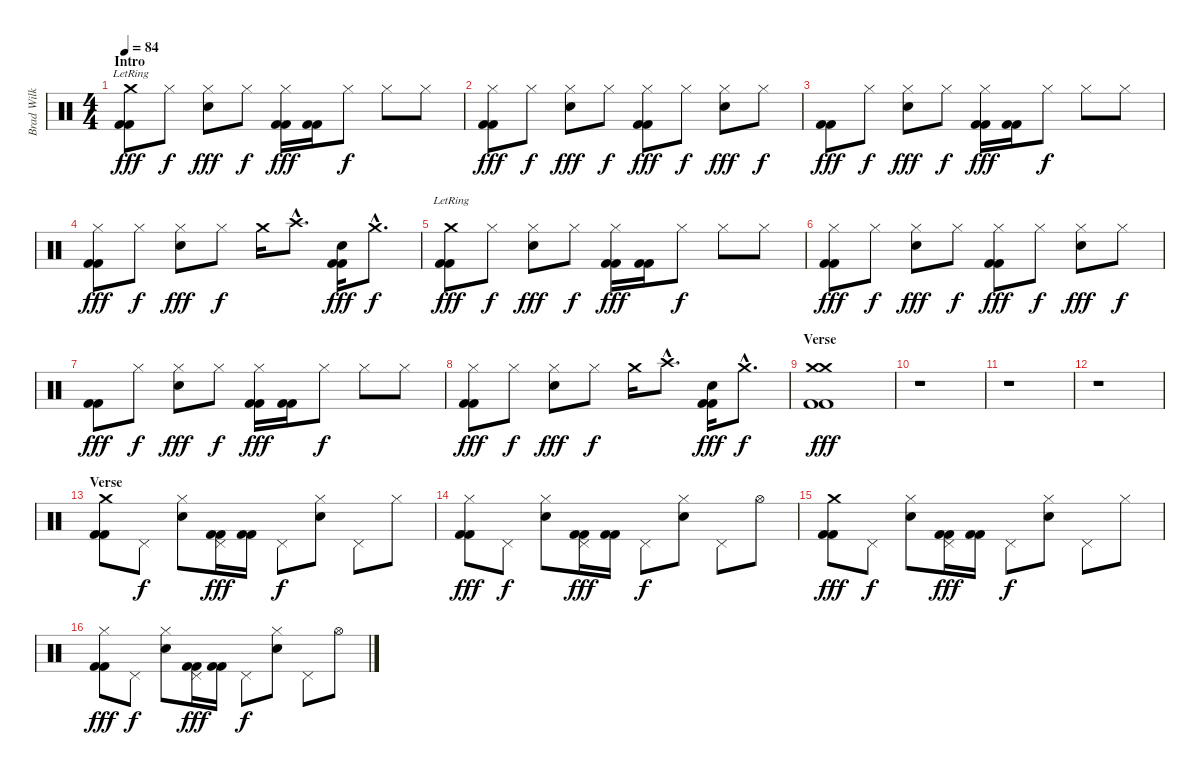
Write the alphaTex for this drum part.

\track ("Brad Wilk" "Brad Wilk") {instrument percussion}
\staff {score}
\articulation defaults
\ts (4 4)
\section ("" "Intro")
\tempo 84
\clef neutral
\ks c
("Crash medium (hit)"{lr} "Kick (hit) 2" "Kick (hit) 2").8{dy fff} "Hi-Hat (closed)".8{dy f} ("Hi-Hat (closed)" "Snare (hit) 2").8{dy fff} "Hi-Hat (closed)".8{dy f} ("Hi-Hat (closed)" "Kick (hit) 2" "Kick (hit) 2").16{dy fff} ("Kick (hit) 2" "Kick (hit) 2").16 "Hi-Hat (closed)".8{dy f} "Hi-Hat (closed)".8 "Hi-Hat (closed)".8 |
("Hi-Hat (closed)" "Kick (hit) 2" "Kick (hit) 2").8{dy fff} "Hi-Hat (closed)".8{dy f} ("Hi-Hat (closed)" "Snare (hit) 2").8{dy fff} "Hi-Hat (closed)".8{dy f} ("Hi-Hat (closed)" "Kick (hit) 2" "Kick (hit) 2").8{dy fff} "Hi-Hat (closed)".8{dy f} ("Hi-Hat (closed)" "Snare (hit) 2").8{dy fff} "Hi-Hat (closed)".8{dy f} |
("Kick (hit) 2" "Kick (hit) 2").8{dy fff} "Hi-Hat (closed)".8{dy f} ("Hi-Hat (closed)" "Snare (hit) 2").8{dy fff} "Hi-Hat (closed)".8{dy f} ("Hi-Hat (closed)" "Kick (hit) 2" "Kick (hit) 2").16{dy fff} ("Kick (hit) 2" "Kick (hit) 2").16 "Hi-Hat (closed)".8{dy f} "Hi-Hat (closed)".8 "Hi-Hat (closed)".8 |
("Hi-Hat (closed)" "Kick (hit) 2" "Kick (hit) 2").8{dy fff} "Hi-Hat (closed)".8{dy f} ("Hi-Hat (closed)" "Snare (hit) 2").8{dy fff} "Hi-Hat (closed)".8{dy f} "Crash medium (hit)".16 "Crash high (hit)"{hac}.8{d} ("Electric Snare (hit)" "Kick (hit) 2" "Kick (hit) 2").16{dy fff} "Crash medium (hit)"{hac}.8{d dy f} |
("Crash medium (hit)"{lr} "Kick (hit) 2" "Kick (hit) 2").8{dy fff} "Hi-Hat (closed)".8{dy f} ("Hi-Hat (closed)" "Snare (hit) 2").8{dy fff} "Hi-Hat (closed)".8{dy f} ("Hi-Hat (closed)" "Kick (hit) 2" "Kick (hit) 2").16{dy fff} ("Kick (hit) 2" "Kick (hit) 2").16 "Hi-Hat (closed)".8{dy f} "Hi-Hat (closed)".8 "Hi-Hat (closed)".8 |
("Hi-Hat (closed)" "Kick (hit) 2" "Kick (hit) 2").8{dy fff} "Hi-Hat (closed)".8{dy f} ("Hi-Hat (closed)" "Snare (hit) 2").8{dy fff} "Hi-Hat (closed)".8{dy f} ("Hi-Hat (closed)" "Kick (hit) 2" "Kick (hit) 2").8{dy fff} "Hi-Hat (closed)".8{dy f} ("Hi-Hat (closed)" "Snare (hit) 2").8{dy fff} "Hi-Hat (closed)".8{dy f} |
("Kick (hit) 2" "Kick (hit) 2").8{dy fff} "Hi-Hat (closed)".8{dy f} ("Hi-Hat (closed)" "Snare (hit) 2").8{dy fff} "Hi-Hat (closed)".8{dy f} ("Hi-Hat (closed)" "Kick (hit) 2" "Kick (hit) 2").16{dy fff} ("Kick (hit) 2" "Kick (hit) 2").16 "Hi-Hat (closed)".8{dy f} "Hi-Hat (closed)".8 "Hi-Hat (closed)".8 |
("Hi-Hat (closed)" "Kick (hit) 2" "Kick (hit) 2").8{dy fff} "Hi-Hat (closed)".8{dy f} ("Hi-Hat (closed)" "Snare (hit) 2").8{dy fff} "Hi-Hat (closed)".8{dy f} "Crash medium (hit)".16 "Crash high (hit)"{hac}.8{d} ("Electric Snare (hit)" "Kick (hit) 2" "Kick (hit) 2").16{dy fff} "Crash medium (hit)"{hac}.8{d dy f} |
\section ("" "Verse")
("Crash medium (hit)" "Crash medium (hit)" "Kick (hit) 2" "Kick (hit) 2").1{dy fff} |
r.1 |
r.1 |
r.1 |
\section ("" "Verse")
("Crash medium (hit)" "Kick (hit) 2" "Kick (hit) 2").8 "Pedal Hi-Hat (hit)".8{dy f} ("Hi-Hat (closed)" "Snare (hit) 2").8 ("Pedal Hi-Hat (hit)" "Kick (hit) 2" "Kick (hit) 2").16{dy fff} ("Kick (hit) 2" "Kick (hit) 2").16 "Pedal Hi-Hat (hit)".8{dy f} ("Hi-Hat (closed)" "Snare (hit) 2").8 "Pedal Hi-Hat (hit)".8 "Hi-Hat (closed)".8 |
("Hi-Hat (closed)" "Kick (hit) 2" "Kick (hit) 2").8{dy fff} "Pedal Hi-Hat (hit)".8{dy f} ("Hi-Hat (closed)" "Snare (hit) 2").8 ("Pedal Hi-Hat (hit)" "Kick (hit) 2" "Kick (hit) 2").16{dy fff} ("Kick (hit) 2" "Kick (hit) 2").16 "Pedal Hi-Hat (hit)".8{dy f} ("Hi-Hat (closed)" "Snare (hit) 2").8 "Pedal Hi-Hat (hit)".8 "Hi-Hat (open)".8 |
("Crash medium (hit)" "Kick (hit) 2" "Kick (hit) 2").8{dy fff} "Pedal Hi-Hat (hit)".8{dy f} ("Hi-Hat (closed)" "Snare (hit) 2").8 ("Pedal Hi-Hat (hit)" "Kick (hit) 2" "Kick (hit) 2").16{dy fff} ("Kick (hit) 2" "Kick (hit) 2").16 "Pedal Hi-Hat (hit)".8{dy f} ("Hi-Hat (closed)" "Snare (hit) 2").8 "Pedal Hi-Hat (hit)".8 "Hi-Hat (closed)".8 |
("Hi-Hat (closed)" "Kick (hit) 2" "Kick (hit) 2").8{dy fff} "Pedal Hi-Hat (hit)".8{dy f} ("Hi-Hat (closed)" "Snare (hit) 2").8 ("Pedal Hi-Hat (hit)" "Kick (hit) 2" "Kick (hit) 2").16{dy fff} ("Kick (hit) 2" "Kick (hit) 2").16 "Pedal Hi-Hat (hit)".8{dy f} ("Hi-Hat (closed)" "Snare (hit) 2").8 "Pedal Hi-Hat (hit)".8 "Hi-Hat (open)".8
